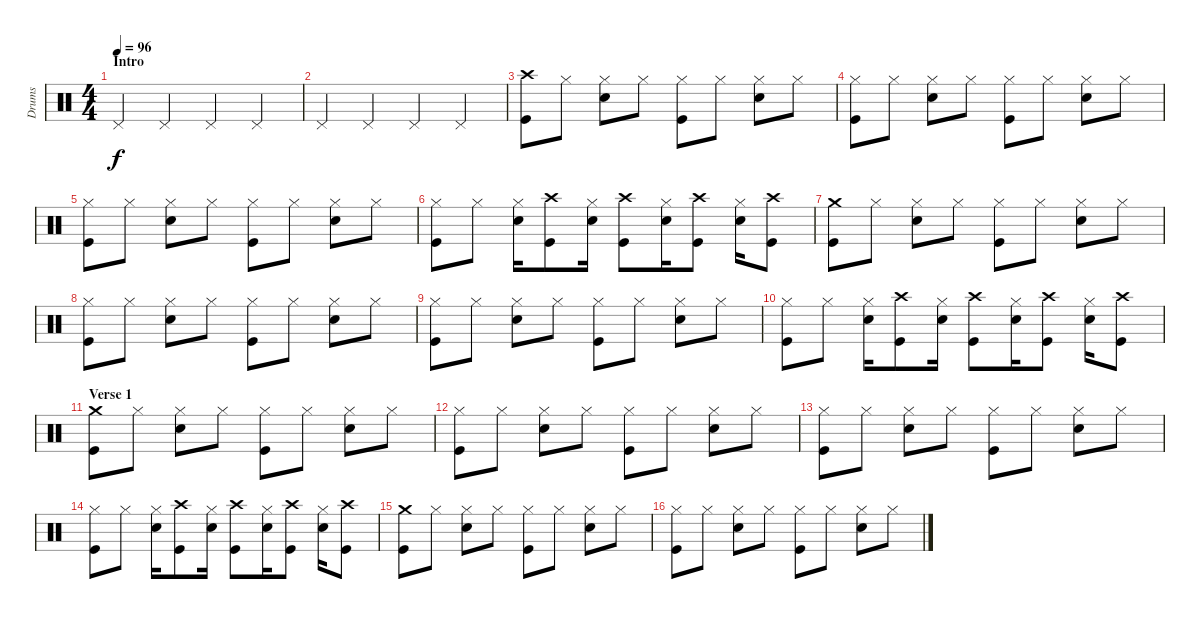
\track ("Drums" "Drums") {instrument percussion}
\staff {score}
\articulation defaults
\ts (4 4)
\section ("" "Intro")
\tempo 96
\clef neutral
\ks c "Pedal Hi-Hat (hit)".4{dy f} "Pedal Hi-Hat (hit)".4 "Pedal Hi-Hat (hit)".4 "Pedal Hi-Hat (hit)".4
|
"Pedal Hi-Hat (hit)".4 "Pedal Hi-Hat (hit)".4 "Pedal Hi-Hat (hit)".4 "Pedal Hi-Hat (hit)".4 |
("Crash high (hit)" "Kick (hit)").8 "Hi-Hat (closed)".8 ("Hi-Hat (closed)" "Electric Snare (hit)").8 "Hi-Hat (closed)".8 ("Hi-Hat (closed)" "Kick (hit)").8 "Hi-Hat (closed)".8 ("Hi-Hat (closed)" "Electric Snare (hit)").8 "Hi-Hat (closed)".8 |
("Hi-Hat (closed)" "Kick (hit)").8 "Hi-Hat (closed)".8 ("Hi-Hat (closed)" "Electric Snare (hit)").8 "Hi-Hat (closed)".8 ("Hi-Hat (closed)" "Kick (hit)").8 "Hi-Hat (closed)".8 ("Hi-Hat (closed)" "Electric Snare (hit)").8 "Hi-Hat (closed)".8 |
("Hi-Hat (closed)" "Kick (hit)").8 "Hi-Hat (closed)".8 ("Hi-Hat (closed)" "Electric Snare (hit)").8 "Hi-Hat (closed)".8 ("Hi-Hat (closed)" "Kick (hit)").8 "Hi-Hat (closed)".8 ("Hi-Hat (closed)" "Electric Snare (hit)").8 "Hi-Hat (closed)".8 |
("Hi-Hat (closed)" "Kick (hit)").8 "Hi-Hat (closed)".8 ("Hi-Hat (closed)" "Electric Snare (hit)").16 ("Crash high (hit)" "Kick (hit)").8 ("Hi-Hat (closed)" "Electric Snare (hit)").16 ("Crash high (hit)" "Kick (hit)").8 ("Hi-Hat (closed)" "Electric Snare (hit)").16 ("Crash high (hit)" "Kick (hit)").8 ("Hi-Hat (closed)" "Electric Snare (hit)").16 ("Crash high (hit)" "Kick (hit)").8 |
("Crash medium (hit)" "Kick (hit)").8 "Hi-Hat (closed)".8 ("Hi-Hat (closed)" "Electric Snare (hit)").8 "Hi-Hat (closed)".8 ("Hi-Hat (closed)" "Kick (hit)").8 "Hi-Hat (closed)".8 ("Hi-Hat (closed)" "Electric Snare (hit)").8 "Hi-Hat (closed)".8 |
("Hi-Hat (closed)" "Kick (hit)").8 "Hi-Hat (closed)".8 ("Hi-Hat (closed)" "Electric Snare (hit)").8 "Hi-Hat (closed)".8 ("Hi-Hat (closed)" "Kick (hit)").8 "Hi-Hat (closed)".8 ("Hi-Hat (closed)" "Electric Snare (hit)").8 "Hi-Hat (closed)".8 |
("Hi-Hat (closed)" "Kick (hit)").8 "Hi-Hat (closed)".8 ("Hi-Hat (closed)" "Electric Snare (hit)").8 "Hi-Hat (closed)".8 ("Hi-Hat (closed)" "Kick (hit)").8 "Hi-Hat (closed)".8 ("Hi-Hat (closed)" "Electric Snare (hit)").8 "Hi-Hat (closed)".8 |
("Hi-Hat (closed)" "Kick (hit)").8 "Hi-Hat (closed)".8 ("Hi-Hat (closed)" "Electric Snare (hit)").16 ("Crash high (hit)" "Kick (hit)").8 ("Hi-Hat (closed)" "Electric Snare (hit)").16 ("Crash high (hit)" "Kick (hit)").8 ("Hi-Hat (closed)" "Electric Snare (hit)").16 ("Crash high (hit)" "Kick (hit)").8 ("Hi-Hat (closed)" "Electric Snare (hit)").16 ("Crash high (hit)" "Kick (hit)").8 |
\section ("" "Verse 1")
("Crash medium (hit)" "Kick (hit)").8 "Hi-Hat (closed)".8 ("Hi-Hat (closed)" "Electric Snare (hit)").8 "Hi-Hat (closed)".8 ("Hi-Hat (closed)" "Kick (hit)").8 "Hi-Hat (closed)".8 ("Hi-Hat (closed)" "Electric Snare (hit)").8 "Hi-Hat (closed)".8 |
("Hi-Hat (closed)" "Kick (hit)").8 "Hi-Hat (closed)".8 ("Hi-Hat (closed)" "Electric Snare (hit)").8 "Hi-Hat (closed)".8 ("Hi-Hat (closed)" "Kick (hit)").8 "Hi-Hat (closed)".8 ("Hi-Hat (closed)" "Electric Snare (hit)").8 "Hi-Hat (closed)".8 |
("Hi-Hat (closed)" "Kick (hit)").8 "Hi-Hat (closed)".8 ("Hi-Hat (closed)" "Electric Snare (hit)").8 "Hi-Hat (closed)".8 ("Hi-Hat (closed)" "Kick (hit)").8 "Hi-Hat (closed)".8 ("Hi-Hat (closed)" "Electric Snare (hit)").8 "Hi-Hat (closed)".8 |
("Hi-Hat (closed)" "Kick (hit)").8 "Hi-Hat (closed)".8 ("Hi-Hat (closed)" "Electric Snare (hit)").16 ("Crash high (hit)" "Kick (hit)").8 ("Hi-Hat (closed)" "Electric Snare (hit)").16 ("Crash high (hit)" "Kick (hit)").8 ("Hi-Hat (closed)" "Electric Snare (hit)").16 ("Crash high (hit)" "Kick (hit)").8 ("Hi-Hat (closed)" "Electric Snare (hit)").16 ("Crash high (hit)" "Kick (hit)").8 |
("Crash medium (hit)" "Kick (hit)").8 "Hi-Hat (closed)".8 ("Hi-Hat (closed)" "Electric Snare (hit)").8 "Hi-Hat (closed)".8 ("Hi-Hat (closed)" "Kick (hit)").8 "Hi-Hat (closed)".8 ("Hi-Hat (closed)" "Electric Snare (hit)").8 "Hi-Hat (closed)".8 |
("Hi-Hat (closed)" "Kick (hit)").8 "Hi-Hat (closed)".8 ("Hi-Hat (closed)" "Electric Snare (hit)").8 "Hi-Hat (closed)".8 ("Hi-Hat (closed)" "Kick (hit)").8 "Hi-Hat (closed)".8 ("Hi-Hat (closed)" "Electric Snare (hit)").8 "Hi-Hat (closed)".8
